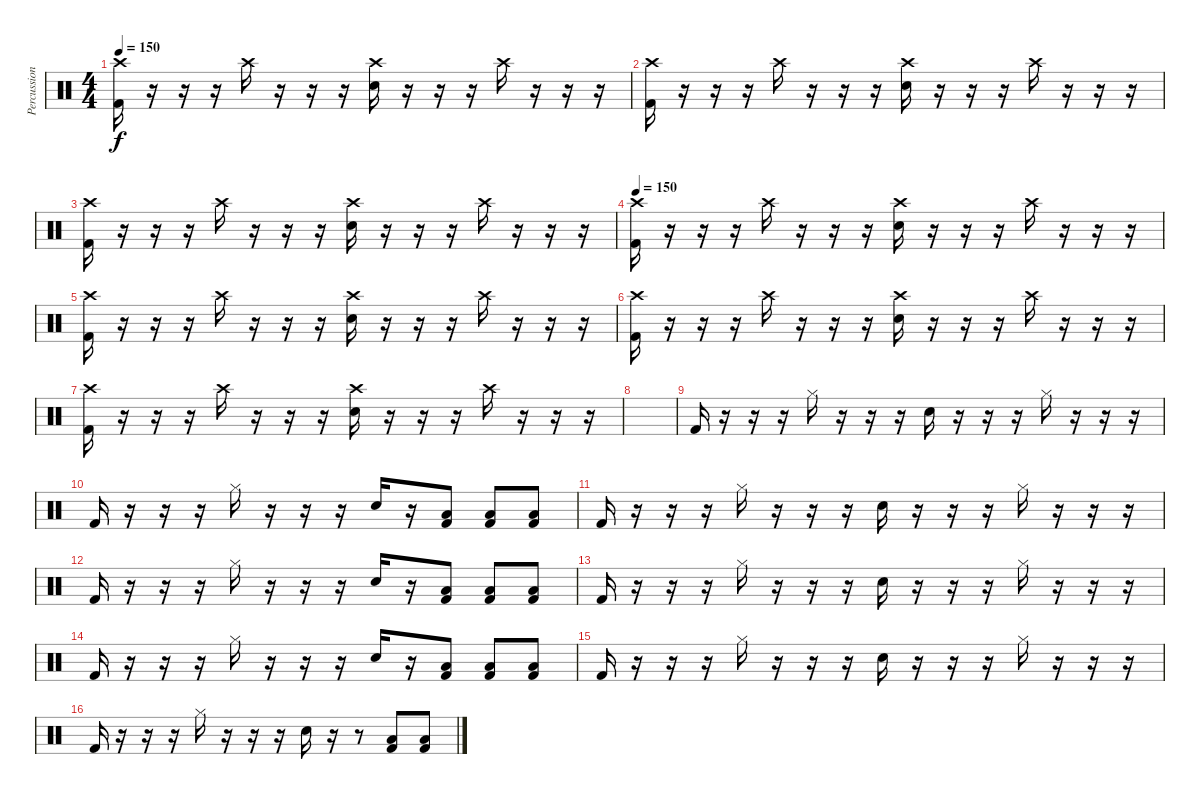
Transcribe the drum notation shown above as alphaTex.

\track ("Percussion" "Percussion") {instrument percussion}
\staff {score}
\articulation defaults
\ts (4 4)
\tempo 150
\clef neutral
\ks c
("Crash high (hit)" "Kick (hit) 2").16{dy f} r.16 r.16 r.16 "Crash high (hit)".16 r.16 r.16 r.16 ("Crash high (hit)" "Electric Snare (hit)").16 r.16 r.16 r.16 "Crash high (hit)".16 r.16 r.16 r.16 |
("Crash high (hit)" "Kick (hit) 2").16 r.16 r.16 r.16 "Crash high (hit)".16 r.16 r.16 r.16 ("Crash high (hit)" "Electric Snare (hit)").16 r.16 r.16 r.16 "Crash high (hit)".16 r.16 r.16 r.16 |
("Crash high (hit)" "Kick (hit) 2").16 r.16 r.16 r.16 "Crash high (hit)".16 r.16 r.16 r.16 ("Crash high (hit)" "Electric Snare (hit)").16 r.16 r.16 r.16 "Crash high (hit)".16 r.16 r.16 r.16 |
\tempo 150
("Crash high (hit)" "Kick (hit) 2").16 r.16 r.16 r.16 "Crash high (hit)".16 r.16 r.16 r.16 ("Crash high (hit)" "Electric Snare (hit)").16 r.16 r.16 r.16 "Crash high (hit)".16 r.16 r.16 r.16 |
("Crash high (hit)" "Kick (hit) 2").16 r.16 r.16 r.16 "Crash high (hit)".16 r.16 r.16 r.16 ("Crash high (hit)" "Electric Snare (hit)").16 r.16 r.16 r.16 "Crash high (hit)".16 r.16 r.16 r.16 |
("Crash high (hit)" "Kick (hit) 2").16 r.16 r.16 r.16 "Crash high (hit)".16 r.16 r.16 r.16 ("Crash high (hit)" "Electric Snare (hit)").16 r.16 r.16 r.16 "Crash high (hit)".16 r.16 r.16 r.16 |
("Crash high (hit)" "Kick (hit) 2").16 r.16 r.16 r.16 "Crash high (hit)".16 r.16 r.16 r.16 ("Crash high (hit)" "Electric Snare (hit)").16 r.16 r.16 r.16 "Crash high (hit)".16 r.16 r.16 r.16 |
|
"Kick (hit) 2".16 r.16 r.16 r.16 "Hi-Hat (closed)".16 r.16 r.16 r.16 "Electric Snare (hit)".16 r.16 r.16 r.16 "Hi-Hat (closed)".16 r.16 r.16 r.16 |
"Kick (hit) 2".16 r.16 r.16 r.16 "Hi-Hat (closed)".16 r.16 r.16 r.16 "Electric Snare (hit)".16 r.16 ("Kick (hit) 2" "Low Floor Tom (hit)").8 ("Kick (hit) 2" "Low Floor Tom (hit)").8 ("Kick (hit) 2" "Low Floor Tom (hit)").8 |
"Kick (hit) 2".16 r.16 r.16 r.16 "Hi-Hat (closed)".16 r.16 r.16 r.16 "Electric Snare (hit)".16 r.16 r.16 r.16 "Hi-Hat (closed)".16 r.16 r.16 r.16 |
"Kick (hit) 2".16 r.16 r.16 r.16 "Hi-Hat (closed)".16 r.16 r.16 r.16 "Electric Snare (hit)".16 r.16 ("Kick (hit) 2" "Low Floor Tom (hit)").8 ("Kick (hit) 2" "Low Floor Tom (hit)").8 ("Kick (hit) 2" "Low Floor Tom (hit)").8 |
"Kick (hit) 2".16 r.16 r.16 r.16 "Hi-Hat (closed)".16 r.16 r.16 r.16 "Electric Snare (hit)".16 r.16 r.16 r.16 "Hi-Hat (closed)".16 r.16 r.16 r.16 |
"Kick (hit) 2".16 r.16 r.16 r.16 "Hi-Hat (closed)".16 r.16 r.16 r.16 "Electric Snare (hit)".16 r.16 ("Kick (hit) 2" "Low Floor Tom (hit)").8 ("Kick (hit) 2" "Low Floor Tom (hit)").8 ("Kick (hit) 2" "Low Floor Tom (hit)").8 |
"Kick (hit) 2".16 r.16 r.16 r.16 "Hi-Hat (closed)".16 r.16 r.16 r.16 "Electric Snare (hit)".16 r.16 r.16 r.16 "Hi-Hat (closed)".16 r.16 r.16 r.16 |
"Kick (hit) 2".16 r.16 r.16 r.16 "Hi-Hat (closed)".16 r.16 r.16 r.16 "Electric Snare (hit)".16 r.16 r.8 ("Kick (hit) 2" "Low Floor Tom (hit)").8 ("Kick (hit) 2" "Low Floor Tom (hit)").8
